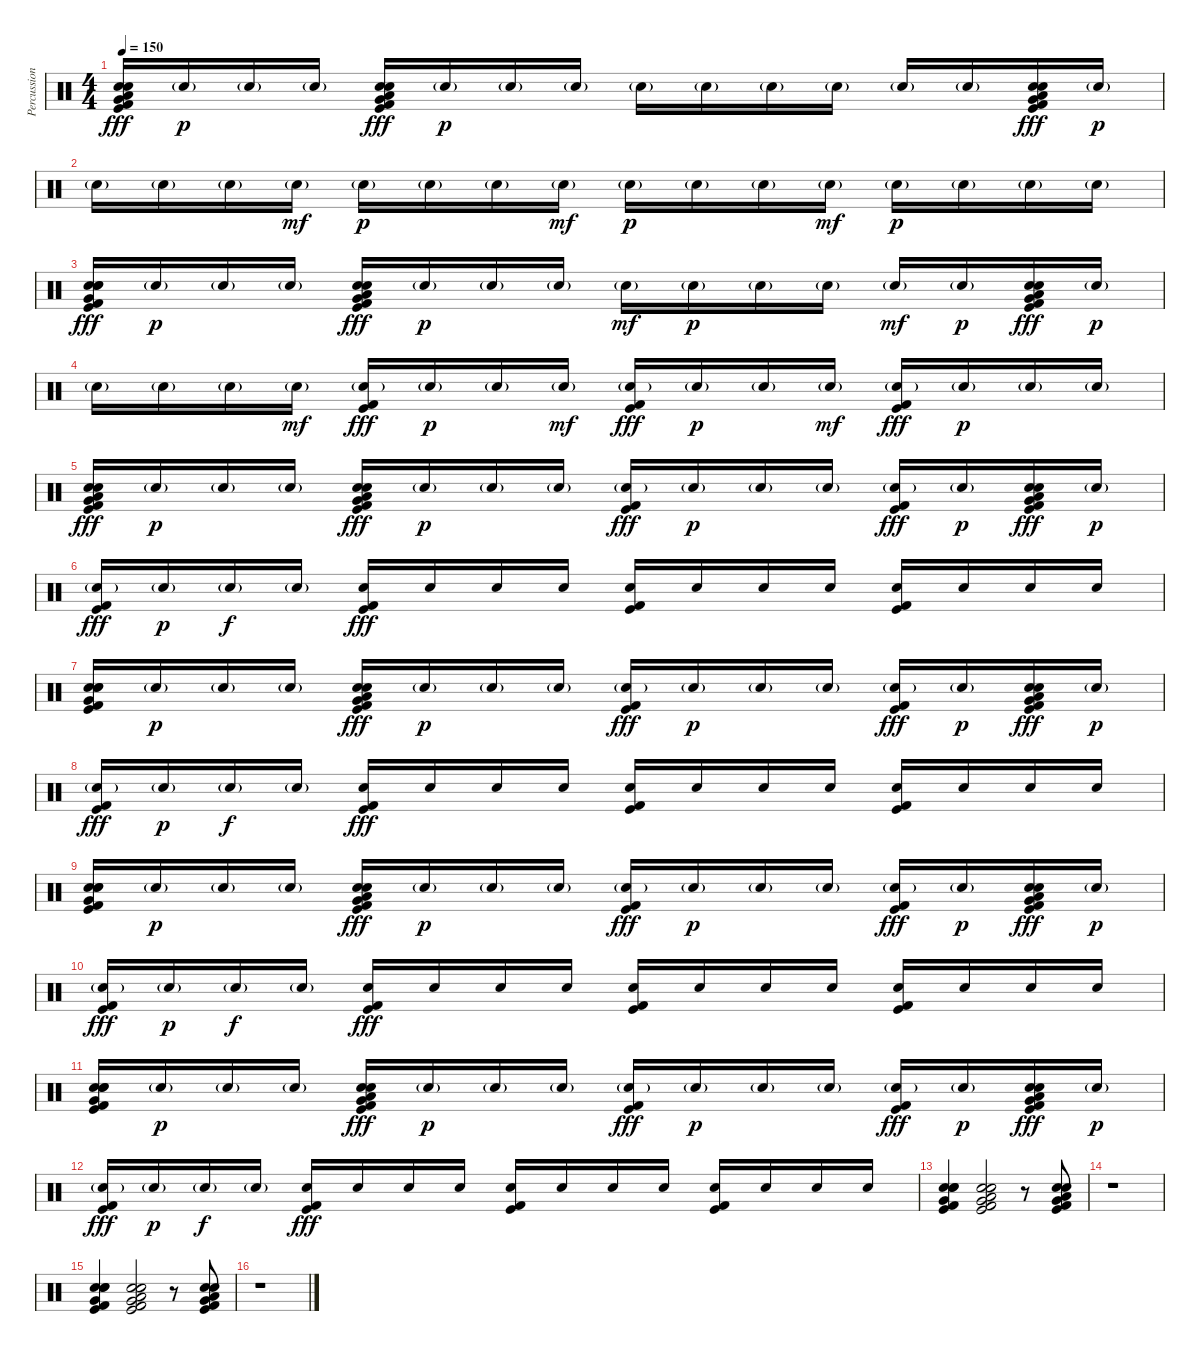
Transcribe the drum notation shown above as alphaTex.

\track ("Percussion" "Percussion") {instrument percussion}
\staff {score}
\articulation defaults
\ts (4 4)
\tempo 150
\clef neutral
\ks c
("Very Low Tom (hit)" "Snare (hit) 2" "Electric Snare (hit)" "Low Floor Tom (hit)" "Kick (hit) 2" "Kick (hit)").16{dy fff} "Snare (hit) 2"{g}.16{dy p} "Snare (hit) 2"{g}.16 "Snare (hit) 2"{g}.16 ("Very Low Tom (hit)" "Snare (hit) 2" "Electric Snare (hit)" "Low Floor Tom (hit)" "Kick (hit) 2" "Kick (hit)").16{dy fff} "Snare (hit) 2"{g}.16{dy p} "Snare (hit) 2"{g}.16 "Snare (hit) 2"{g}.16 "Snare (hit) 2"{g}.16 "Snare (hit) 2"{g}.16 "Snare (hit) 2"{g}.16 "Snare (hit) 2"{g}.16 "Snare (hit) 2"{g}.16 "Snare (hit) 2"{g}.16 ("Very Low Tom (hit)" "Snare (hit) 2" "Electric Snare (hit)" "Low Floor Tom (hit)" "Kick (hit) 2" "Kick (hit)").16{dy fff} "Snare (hit) 2"{g}.16{dy p} |
"Snare (hit) 2"{g}.16 "Snare (hit) 2"{g}.16 "Snare (hit) 2"{g}.16 "Snare (hit) 2"{g}.16{dy mf} "Snare (hit) 2"{g}.16{dy p} "Snare (hit) 2"{g}.16 "Snare (hit) 2"{g}.16 "Snare (hit) 2"{g}.16{dy mf} "Snare (hit) 2"{g}.16{dy p} "Snare (hit) 2"{g}.16 "Snare (hit) 2"{g}.16 "Snare (hit) 2"{g}.16{dy mf} "Snare (hit) 2"{g}.16{dy p} "Snare (hit) 2"{g}.16 "Snare (hit) 2"{g}.16 "Snare (hit) 2"{g}.16 |
("Very Low Tom (hit)" "Snare (hit) 2" "Electric Snare (hit)" "Electric Snare (hit)" "Kick (hit) 2" "Kick (hit)").16{dy fff} "Snare (hit) 2"{g}.16{dy p} "Snare (hit) 2"{g}.16 "Snare (hit) 2"{g}.16 ("Very Low Tom (hit)" "Snare (hit) 2" "Electric Snare (hit)" "Low Floor Tom (hit)" "Kick (hit) 2" "Kick (hit)").16{dy fff} "Snare (hit) 2"{g}.16{dy p} "Snare (hit) 2"{g}.16 "Snare (hit) 2"{g}.16 "Snare (hit) 2"{g}.16{dy mf} "Snare (hit) 2"{g}.16{dy p} "Snare (hit) 2"{g}.16 "Snare (hit) 2"{g}.16 "Snare (hit) 2"{g}.16{dy mf} "Snare (hit) 2"{g}.16{dy p} ("Very Low Tom (hit)" "Snare (hit) 2" "Electric Snare (hit)" "Low Floor Tom (hit)" "Kick (hit) 2" "Kick (hit)").16{dy fff} "Snare (hit) 2"{g}.16{dy p} |
"Snare (hit) 2"{g}.16 "Snare (hit) 2"{g}.16 "Snare (hit) 2"{g}.16 "Snare (hit) 2"{g}.16{dy mf} ("Snare (hit) 2"{g} "Kick (hit) 2" "Kick (hit)").16{dy fff} "Snare (hit) 2"{g}.16{dy p} "Snare (hit) 2"{g}.16 "Snare (hit) 2"{g}.16{dy mf} ("Snare (hit) 2"{g} "Kick (hit) 2" "Kick (hit)").16{dy fff} "Snare (hit) 2"{g}.16{dy p} "Snare (hit) 2"{g}.16 "Snare (hit) 2"{g}.16{dy mf} ("Snare (hit) 2"{g} "Kick (hit) 2" "Kick (hit)").16{dy fff} "Snare (hit) 2"{g}.16{dy p} "Snare (hit) 2"{g}.16 "Snare (hit) 2"{g}.16 |
("Very Low Tom (hit)" "Snare (hit) 2" "Electric Snare (hit)" "Low Floor Tom (hit)" "Kick (hit) 2" "Kick (hit)").16{dy fff} "Snare (hit) 2"{g}.16{dy p} "Snare (hit) 2"{g}.16 "Snare (hit) 2"{g}.16 ("Very Low Tom (hit)" "Snare (hit) 2" "Electric Snare (hit)" "Low Floor Tom (hit)" "Kick (hit) 2" "Kick (hit)").16{dy fff} "Snare (hit) 2"{g}.16{dy p} "Snare (hit) 2"{g}.16 "Snare (hit) 2"{g}.16 ("Snare (hit) 2"{g} "Kick (hit) 2" "Kick (hit)").16{dy fff} "Snare (hit) 2"{g}.16{dy p} "Snare (hit) 2"{g}.16 "Snare (hit) 2"{g}.16 ("Snare (hit) 2"{g} "Kick (hit) 2" "Kick (hit)").16{dy fff} "Snare (hit) 2"{g}.16{dy p} ("Very Low Tom (hit)" "Snare (hit) 2" "Electric Snare (hit)" "Low Floor Tom (hit)" "Kick (hit) 2" "Kick (hit)").16{dy fff} "Snare (hit) 2"{g}.16{dy p} |
("Snare (hit) 2"{g} "Kick (hit) 2" "Kick (hit)").16{dy fff} "Snare (hit) 2"{g}.16{dy p} "Snare (hit) 2"{g}.16{dy f} "Snare (hit) 2"{g}.16 ("Snare (hit) 2" "Kick (hit) 2" "Kick (hit)").16{dy fff} "Snare (hit) 2".16 "Snare (hit) 2".16 "Snare (hit) 2".16 ("Snare (hit) 2" "Kick (hit) 2" "Kick (hit)").16 "Snare (hit) 2".16 "Snare (hit) 2".16 "Snare (hit) 2".16 ("Snare (hit) 2" "Kick (hit) 2" "Kick (hit)").16 "Snare (hit) 2".16 "Snare (hit) 2".16 "Snare (hit) 2".16 |
("Very Low Tom (hit)" "Snare (hit) 2" "Electric Snare (hit)" "Electric Snare (hit)" "Kick (hit) 2" "Kick (hit)").16 "Snare (hit) 2"{g}.16{dy p} "Snare (hit) 2"{g}.16 "Snare (hit) 2"{g}.16 ("Very Low Tom (hit)" "Snare (hit) 2" "Electric Snare (hit)" "Low Floor Tom (hit)" "Kick (hit) 2" "Kick (hit)").16{dy fff} "Snare (hit) 2"{g}.16{dy p} "Snare (hit) 2"{g}.16 "Snare (hit) 2"{g}.16 ("Snare (hit) 2"{g} "Kick (hit) 2" "Kick (hit)").16{dy fff} "Snare (hit) 2"{g}.16{dy p} "Snare (hit) 2"{g}.16 "Snare (hit) 2"{g}.16 ("Snare (hit) 2"{g} "Kick (hit) 2" "Kick (hit)").16{dy fff} "Snare (hit) 2"{g}.16{dy p} ("Very Low Tom (hit)" "Snare (hit) 2" "Electric Snare (hit)" "Low Floor Tom (hit)" "Kick (hit) 2" "Kick (hit)").16{dy fff} "Snare (hit) 2"{g}.16{dy p} |
("Snare (hit) 2"{g} "Kick (hit) 2" "Kick (hit)").16{dy fff} "Snare (hit) 2"{g}.16{dy p} "Snare (hit) 2"{g}.16{dy f} "Snare (hit) 2"{g}.16 ("Snare (hit) 2" "Kick (hit) 2" "Kick (hit)").16{dy fff} "Snare (hit) 2".16 "Snare (hit) 2".16 "Snare (hit) 2".16 ("Snare (hit) 2" "Kick (hit) 2" "Kick (hit)").16 "Snare (hit) 2".16 "Snare (hit) 2".16 "Snare (hit) 2".16 ("Snare (hit) 2" "Kick (hit) 2" "Kick (hit)").16 "Snare (hit) 2".16 "Snare (hit) 2".16 "Snare (hit) 2".16 |
("Very Low Tom (hit)" "Snare (hit) 2" "Electric Snare (hit)" "Electric Snare (hit)" "Kick (hit) 2" "Kick (hit)").16 "Snare (hit) 2"{g}.16{dy p} "Snare (hit) 2"{g}.16 "Snare (hit) 2"{g}.16 ("Very Low Tom (hit)" "Snare (hit) 2" "Electric Snare (hit)" "Low Floor Tom (hit)" "Kick (hit) 2" "Kick (hit)").16{dy fff} "Snare (hit) 2"{g}.16{dy p} "Snare (hit) 2"{g}.16 "Snare (hit) 2"{g}.16 ("Snare (hit) 2"{g} "Kick (hit) 2" "Kick (hit)").16{dy fff} "Snare (hit) 2"{g}.16{dy p} "Snare (hit) 2"{g}.16 "Snare (hit) 2"{g}.16 ("Snare (hit) 2"{g} "Kick (hit) 2" "Kick (hit)").16{dy fff} "Snare (hit) 2"{g}.16{dy p} ("Very Low Tom (hit)" "Snare (hit) 2" "Electric Snare (hit)" "Low Floor Tom (hit)" "Kick (hit) 2" "Kick (hit)").16{dy fff} "Snare (hit) 2"{g}.16{dy p} |
("Snare (hit) 2"{g} "Kick (hit) 2" "Kick (hit)").16{dy fff} "Snare (hit) 2"{g}.16{dy p} "Snare (hit) 2"{g}.16{dy f} "Snare (hit) 2"{g}.16 ("Snare (hit) 2" "Kick (hit) 2" "Kick (hit)").16{dy fff} "Snare (hit) 2".16 "Snare (hit) 2".16 "Snare (hit) 2".16 ("Snare (hit) 2" "Kick (hit) 2" "Kick (hit)").16 "Snare (hit) 2".16 "Snare (hit) 2".16 "Snare (hit) 2".16 ("Snare (hit) 2" "Kick (hit) 2" "Kick (hit)").16 "Snare (hit) 2".16 "Snare (hit) 2".16 "Snare (hit) 2".16 |
("Very Low Tom (hit)" "Snare (hit) 2" "Electric Snare (hit)" "Electric Snare (hit)" "Kick (hit) 2" "Kick (hit)").16 "Snare (hit) 2"{g}.16{dy p} "Snare (hit) 2"{g}.16 "Snare (hit) 2"{g}.16 ("Very Low Tom (hit)" "Snare (hit) 2" "Electric Snare (hit)" "Low Floor Tom (hit)" "Kick (hit) 2" "Kick (hit)").16{dy fff} "Snare (hit) 2"{g}.16{dy p} "Snare (hit) 2"{g}.16 "Snare (hit) 2"{g}.16 ("Snare (hit) 2"{g} "Kick (hit) 2" "Kick (hit)").16{dy fff} "Snare (hit) 2"{g}.16{dy p} "Snare (hit) 2"{g}.16 "Snare (hit) 2"{g}.16 ("Snare (hit) 2"{g} "Kick (hit) 2" "Kick (hit)").16{dy fff} "Snare (hit) 2"{g}.16{dy p} ("Very Low Tom (hit)" "Snare (hit) 2" "Electric Snare (hit)" "Low Floor Tom (hit)" "Kick (hit) 2" "Kick (hit)").16{dy fff} "Snare (hit) 2"{g}.16{dy p} |
("Snare (hit) 2"{g} "Kick (hit) 2" "Kick (hit)").16{dy fff} "Snare (hit) 2"{g}.16{dy p} "Snare (hit) 2"{g}.16{dy f} "Snare (hit) 2"{g}.16 ("Snare (hit) 2" "Kick (hit) 2" "Kick (hit)").16{dy fff} "Snare (hit) 2".16 "Snare (hit) 2".16 "Snare (hit) 2".16 ("Snare (hit) 2" "Kick (hit) 2" "Kick (hit)").16 "Snare (hit) 2".16 "Snare (hit) 2".16 "Snare (hit) 2".16 ("Snare (hit) 2" "Kick (hit) 2" "Kick (hit)").16 "Snare (hit) 2".16 "Snare (hit) 2".16 "Snare (hit) 2".16 |
("Very Low Tom (hit)" "Snare (hit) 2" "Electric Snare (hit)" "Electric Snare (hit)" "Kick (hit) 2" "Kick (hit)").4 ("Very Low Tom (hit)" "Snare (hit) 2" "Electric Snare (hit)" "Low Floor Tom (hit)" "Kick (hit) 2" "Kick (hit)").2 r.8 ("Very Low Tom (hit)" "Snare (hit) 2" "Electric Snare (hit)" "Low Floor Tom (hit)" "Kick (hit) 2" "Kick (hit)").8 |
r.1 |
("Very Low Tom (hit)" "Snare (hit) 2" "Electric Snare (hit)" "Electric Snare (hit)" "Kick (hit) 2" "Kick (hit)").4 ("Very Low Tom (hit)" "Snare (hit) 2" "Electric Snare (hit)" "Low Floor Tom (hit)" "Kick (hit) 2" "Kick (hit)").2 r.8 ("Very Low Tom (hit)" "Snare (hit) 2" "Electric Snare (hit)" "Low Floor Tom (hit)" "Kick (hit) 2" "Kick (hit)").8 |
r.1
